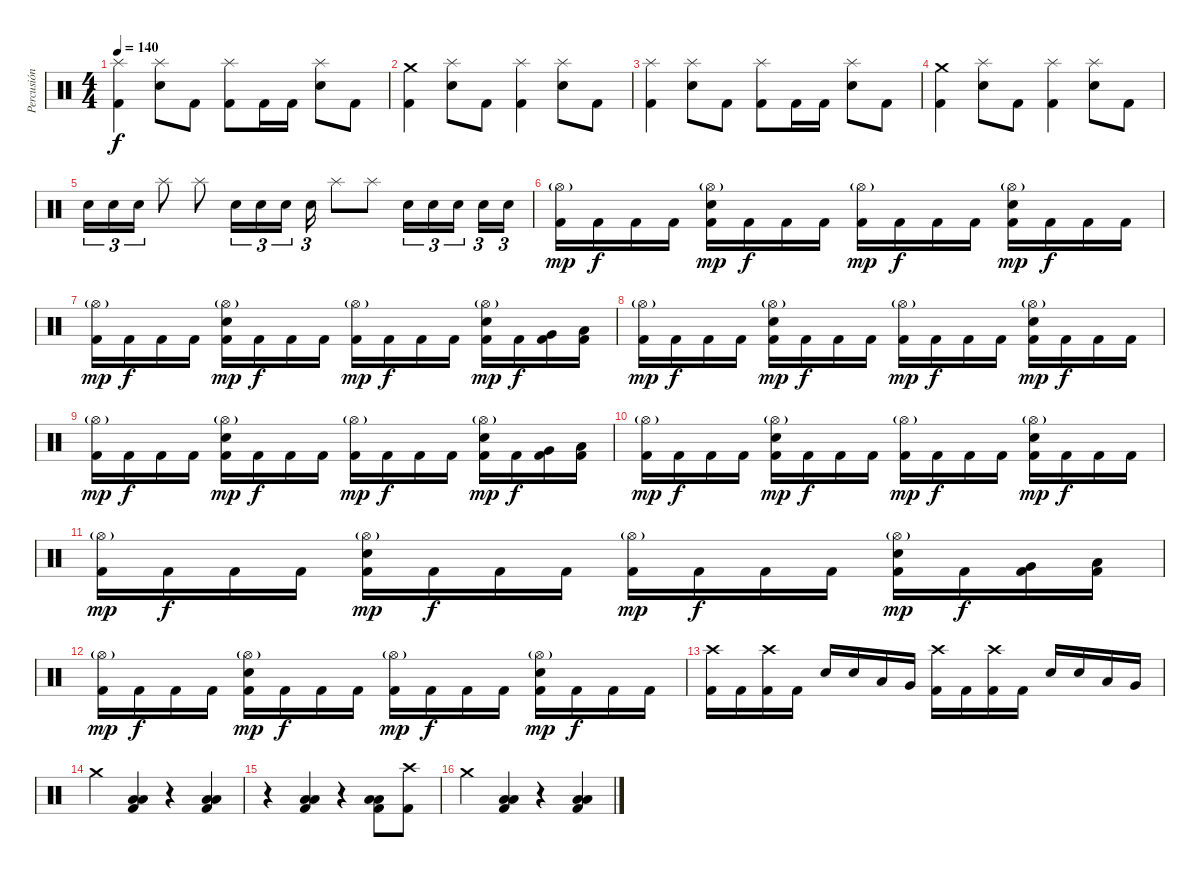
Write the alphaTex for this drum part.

\track ("Percusión" "Percusión") {instrument percussion}
\staff {score}
\articulation defaults
\ts (4 4)
\tempo 140
\clef neutral
\ks c
("Splash (hit)" "Kick (hit) 2").4{dy f} ("Splash (hit)" "Electric Snare (hit)").8 "Kick (hit) 2".8 ("Splash (hit)" "Kick (hit) 2").8 "Kick (hit) 2".16 "Kick (hit) 2".16 ("Splash (hit)" "Electric Snare (hit)").8 "Kick (hit) 2".8 |
("Crash medium (hit)" "Kick (hit) 2").4 ("Splash (hit)" "Electric Snare (hit)").8 "Kick (hit) 2".8 ("Splash (hit)" "Kick (hit) 2").4 ("Splash (hit)" "Electric Snare (hit)").8 "Kick (hit) 2".8 |
("Splash (hit)" "Kick (hit) 2").4 ("Splash (hit)" "Electric Snare (hit)").8 "Kick (hit) 2".8 ("Splash (hit)" "Kick (hit) 2").8 "Kick (hit) 2".16 "Kick (hit) 2".16 ("Splash (hit)" "Electric Snare (hit)").8 "Kick (hit) 2".8 |
("Crash medium (hit)" "Kick (hit) 2").4 ("Splash (hit)" "Electric Snare (hit)").8 "Kick (hit) 2".8 ("Splash (hit)" "Kick (hit) 2").4 ("Splash (hit)" "Electric Snare (hit)").8 "Kick (hit) 2".8 |
"Electric Snare (hit)".16{tu (3 2)} "Electric Snare (hit)".16{tu (3 2)} "Electric Snare (hit)".16{tu (3 2)} "Splash (hit)".8 "Splash (hit)".8 "Electric Snare (hit)".16{tu (3 2)} "Electric Snare (hit)".16{tu (3 2)} "Electric Snare (hit)".16{tu (3 2)} "Electric Snare (hit)".16{tu (3 2)} "Splash (hit)".8 "Splash (hit)".8 "Electric Snare (hit)".16{tu (3 2)} "Electric Snare (hit)".16{tu (3 2)} "Electric Snare (hit)".16{tu (3 2) beam splitsecondary} "Electric Snare (hit)".16{tu (3 2)} "Electric Snare (hit)".16{tu (3 2)} |
("Hi-Hat (open)"{g} "Kick (hit) 2").16{dy mp} "Kick (hit) 2".16{dy f} "Kick (hit) 2".16 "Kick (hit) 2".16 ("Hi-Hat (open)"{g} "Electric Snare (hit)" "Kick (hit) 2").16{dy mp} "Kick (hit) 2".16{dy f} "Kick (hit) 2".16 "Kick (hit) 2".16 ("Hi-Hat (open)"{g} "Kick (hit) 2").16{dy mp} "Kick (hit) 2".16{dy f} "Kick (hit) 2".16 "Kick (hit) 2".16 ("Hi-Hat (open)"{g} "Electric Snare (hit)" "Kick (hit) 2").16{dy mp} "Kick (hit) 2".16{dy f} "Kick (hit) 2".16 "Kick (hit) 2".16 |
("Hi-Hat (open)"{g} "Kick (hit) 2").16{dy mp} "Kick (hit) 2".16{dy f} "Kick (hit) 2".16 "Kick (hit) 2".16 ("Hi-Hat (open)"{g} "Electric Snare (hit)" "Kick (hit) 2").16{dy mp} "Kick (hit) 2".16{dy f} "Kick (hit) 2".16 "Kick (hit) 2".16 ("Hi-Hat (open)"{g} "Kick (hit) 2").16{dy mp} "Kick (hit) 2".16{dy f} "Kick (hit) 2".16 "Kick (hit) 2".16 ("Hi-Hat (open)"{g} "Electric Snare (hit)" "Kick (hit) 2").16{dy mp} "Kick (hit) 2".16{dy f} ("Very Low Tom (hit)" "Kick (hit) 2").16 ("Low Floor Tom (hit)" "Kick (hit) 2").16 |
("Hi-Hat (open)"{g} "Kick (hit) 2").16{dy mp} "Kick (hit) 2".16{dy f} "Kick (hit) 2".16 "Kick (hit) 2".16 ("Hi-Hat (open)"{g} "Electric Snare (hit)" "Kick (hit) 2").16{dy mp} "Kick (hit) 2".16{dy f} "Kick (hit) 2".16 "Kick (hit) 2".16 ("Hi-Hat (open)"{g} "Kick (hit) 2").16{dy mp} "Kick (hit) 2".16{dy f} "Kick (hit) 2".16 "Kick (hit) 2".16 ("Hi-Hat (open)"{g} "Electric Snare (hit)" "Kick (hit) 2").16{dy mp} "Kick (hit) 2".16{dy f} "Kick (hit) 2".16 "Kick (hit) 2".16 |
("Hi-Hat (open)"{g} "Kick (hit) 2").16{dy mp} "Kick (hit) 2".16{dy f} "Kick (hit) 2".16 "Kick (hit) 2".16 ("Hi-Hat (open)"{g} "Electric Snare (hit)" "Kick (hit) 2").16{dy mp} "Kick (hit) 2".16{dy f} "Kick (hit) 2".16 "Kick (hit) 2".16 ("Hi-Hat (open)"{g} "Kick (hit) 2").16{dy mp} "Kick (hit) 2".16{dy f} "Kick (hit) 2".16 "Kick (hit) 2".16 ("Hi-Hat (open)"{g} "Electric Snare (hit)" "Kick (hit) 2").16{dy mp} "Kick (hit) 2".16{dy f} ("Very Low Tom (hit)" "Kick (hit) 2").16 ("Low Floor Tom (hit)" "Kick (hit) 2").16 |
("Hi-Hat (open)"{g} "Kick (hit) 2").16{dy mp} "Kick (hit) 2".16{dy f} "Kick (hit) 2".16 "Kick (hit) 2".16 ("Hi-Hat (open)"{g} "Electric Snare (hit)" "Kick (hit) 2").16{dy mp} "Kick (hit) 2".16{dy f} "Kick (hit) 2".16 "Kick (hit) 2".16 ("Hi-Hat (open)"{g} "Kick (hit) 2").16{dy mp} "Kick (hit) 2".16{dy f} "Kick (hit) 2".16 "Kick (hit) 2".16 ("Hi-Hat (open)"{g} "Electric Snare (hit)" "Kick (hit) 2").16{dy mp} "Kick (hit) 2".16{dy f} "Kick (hit) 2".16 "Kick (hit) 2".16 |
("Hi-Hat (open)"{g} "Kick (hit) 2").16{dy mp} "Kick (hit) 2".16{dy f} "Kick (hit) 2".16 "Kick (hit) 2".16 ("Hi-Hat (open)"{g} "Electric Snare (hit)" "Kick (hit) 2").16{dy mp} "Kick (hit) 2".16{dy f} "Kick (hit) 2".16 "Kick (hit) 2".16 ("Hi-Hat (open)"{g} "Kick (hit) 2").16{dy mp} "Kick (hit) 2".16{dy f} "Kick (hit) 2".16 "Kick (hit) 2".16 ("Hi-Hat (open)"{g} "Electric Snare (hit)" "Kick (hit) 2").16{dy mp} "Kick (hit) 2".16{dy f} ("Very Low Tom (hit)" "Kick (hit) 2").16 ("Low Floor Tom (hit)" "Kick (hit) 2").16 |
("Hi-Hat (open)"{g} "Kick (hit) 2").16{dy mp} "Kick (hit) 2".16{dy f} "Kick (hit) 2".16 "Kick (hit) 2".16 ("Hi-Hat (open)"{g} "Electric Snare (hit)" "Kick (hit) 2").16{dy mp} "Kick (hit) 2".16{dy f} "Kick (hit) 2".16 "Kick (hit) 2".16 ("Hi-Hat (open)"{g} "Kick (hit) 2").16{dy mp} "Kick (hit) 2".16{dy f} "Kick (hit) 2".16 "Kick (hit) 2".16 ("Hi-Hat (open)"{g} "Electric Snare (hit)" "Kick (hit) 2").16{dy mp} "Kick (hit) 2".16{dy f} "Kick (hit) 2".16 "Kick (hit) 2".16 |
("Crash high (hit)" "Kick (hit) 2").16 "Kick (hit) 2".16 ("Crash high (hit)" "Kick (hit) 2").16 "Kick (hit) 2".16 "Electric Snare (hit)".16 "Electric Snare (hit)".16 "Low Tom (hit)".16 "Very Low Tom (hit)".16 ("Crash high (hit)" "Kick (hit) 2").16 "Kick (hit) 2".16 ("Crash high (hit)" "Kick (hit) 2").16 "Kick (hit) 2".16 "Electric Snare (hit)".16 "Electric Snare (hit)".16 "Low Tom (hit)".16 "Very Low Tom (hit)".16 |
"Crash medium (hit)".4 ("Low Floor Tom (hit)" "Low Floor Tom (hit)" "Kick (hit) 2").4 r.4 ("Low Floor Tom (hit)" "Low Floor Tom (hit)" "Kick (hit) 2").4 |
r.4 ("Low Floor Tom (hit)" "Low Floor Tom (hit)" "Kick (hit) 2").4 r.4 ("Low Floor Tom (hit)" "Low Floor Tom (hit)" "Kick (hit) 2").8 ("Crash high (hit)" "Kick (hit) 2").8 |
"Crash medium (hit)".4 ("Low Floor Tom (hit)" "Low Floor Tom (hit)" "Kick (hit) 2").4 r.4 ("Low Floor Tom (hit)" "Low Floor Tom (hit)" "Kick (hit) 2").4
